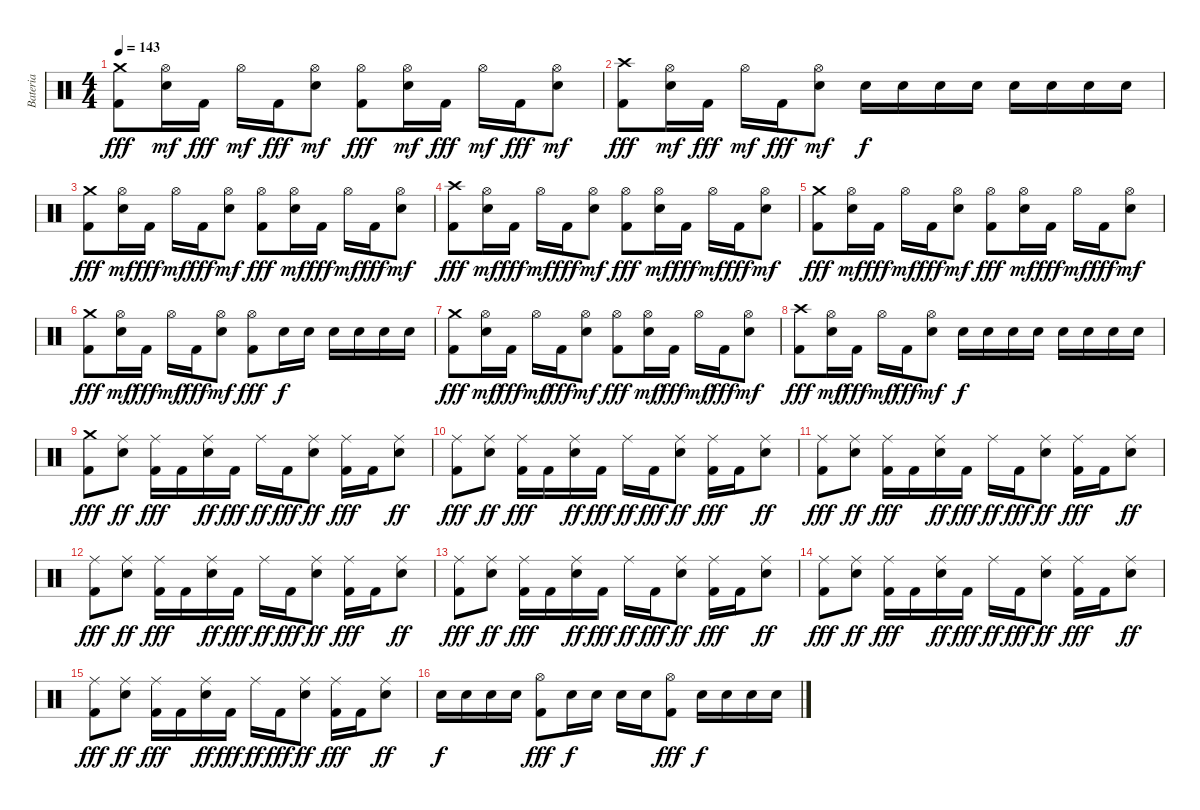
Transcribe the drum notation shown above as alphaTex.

\track ("Bateria" "Bateria") {instrument percussion}
\staff {score}
\articulation defaults
\ts (4 4)
\tempo 143
\clef neutral
\ks c
("Crash medium (hit)" "Kick (hit) 2").8{dy fff} ("Hi-Hat (open)" "Electric Snare (hit)").16{dy mf} "Kick (hit) 2".16{dy fff} "Hi-Hat (open)".16{dy mf} "Kick (hit) 2".16{dy fff} ("Hi-Hat (open)" "Electric Snare (hit)").8{dy mf} ("Hi-Hat (open)" "Kick (hit) 2").8{dy fff} ("Hi-Hat (open)" "Electric Snare (hit)").16{dy mf} "Kick (hit) 2".16{dy fff} "Hi-Hat (open)".16{dy mf} "Kick (hit) 2".16{dy fff} ("Hi-Hat (open)" "Electric Snare (hit)").8{dy mf} |
("Crash high (hit)" "Kick (hit) 2").8{dy fff} ("Hi-Hat (open)" "Electric Snare (hit)").16{dy mf} "Kick (hit) 2".16{dy fff} "Hi-Hat (open)".16{dy mf} "Kick (hit) 2".16{dy fff} ("Hi-Hat (open)" "Electric Snare (hit)").8{dy mf} "Electric Snare (hit)".16{dy f} "Electric Snare (hit)".16 "Electric Snare (hit)".16 "Electric Snare (hit)".16 "Electric Snare (hit)".16 "Electric Snare (hit)".16 "Electric Snare (hit)".16 "Electric Snare (hit)".16 |
("Crash medium (hit)" "Kick (hit) 2").8{dy fff} ("Hi-Hat (open)" "Electric Snare (hit)").16{dy mf} "Kick (hit) 2".16{dy fff} "Hi-Hat (open)".16{dy mf} "Kick (hit) 2".16{dy fff} ("Hi-Hat (open)" "Electric Snare (hit)").8{dy mf} ("Hi-Hat (open)" "Kick (hit) 2").8{dy fff} ("Hi-Hat (open)" "Electric Snare (hit)").16{dy mf} "Kick (hit) 2".16{dy fff} "Hi-Hat (open)".16{dy mf} "Kick (hit) 2".16{dy fff} ("Hi-Hat (open)" "Electric Snare (hit)").8{dy mf} |
("Crash high (hit)" "Kick (hit) 2").8{dy fff} ("Hi-Hat (open)" "Electric Snare (hit)").16{dy mf} "Kick (hit) 2".16{dy fff} "Hi-Hat (open)".16{dy mf} "Kick (hit) 2".16{dy fff} ("Hi-Hat (open)" "Electric Snare (hit)").8{dy mf} ("Hi-Hat (open)" "Kick (hit) 2").8{dy fff} ("Hi-Hat (open)" "Electric Snare (hit)").16{dy mf} "Kick (hit) 2".16{dy fff} "Hi-Hat (open)".16{dy mf} "Kick (hit) 2".16{dy fff} ("Hi-Hat (open)" "Electric Snare (hit)").8{dy mf} |
("Crash medium (hit)" "Kick (hit) 2").8{dy fff} ("Hi-Hat (open)" "Electric Snare (hit)").16{dy mf} "Kick (hit) 2".16{dy fff} "Hi-Hat (open)".16{dy mf} "Kick (hit) 2".16{dy fff} ("Hi-Hat (open)" "Electric Snare (hit)").8{dy mf} ("Hi-Hat (open)" "Kick (hit) 2").8{dy fff} ("Hi-Hat (open)" "Electric Snare (hit)").16{dy mf} "Kick (hit) 2".16{dy fff} "Hi-Hat (open)".16{dy mf} "Kick (hit) 2".16{dy fff} ("Hi-Hat (open)" "Electric Snare (hit)").8{dy mf} |
("Crash medium (hit)" "Kick (hit) 2").8{dy fff} ("Hi-Hat (open)" "Electric Snare (hit)").16{dy mf} "Kick (hit) 2".16{dy fff} "Hi-Hat (open)".16{dy mf} "Kick (hit) 2".16{dy fff} ("Hi-Hat (open)" "Electric Snare (hit)").8{dy mf} ("Hi-Hat (open)" "Kick (hit) 2").8{dy fff} "Electric Snare (hit)".16{dy f} "Electric Snare (hit)".16 "Electric Snare (hit)".16 "Electric Snare (hit)".16 "Electric Snare (hit)".16 "Electric Snare (hit)".16 |
("Crash medium (hit)" "Kick (hit) 2").8{dy fff} ("Hi-Hat (open)" "Electric Snare (hit)").16{dy mf} "Kick (hit) 2".16{dy fff} "Hi-Hat (open)".16{dy mf} "Kick (hit) 2".16{dy fff} ("Hi-Hat (open)" "Electric Snare (hit)").8{dy mf} ("Hi-Hat (open)" "Kick (hit) 2").8{dy fff} ("Hi-Hat (open)" "Electric Snare (hit)").16{dy mf} "Kick (hit) 2".16{dy fff} "Hi-Hat (open)".16{dy mf} "Kick (hit) 2".16{dy fff} ("Hi-Hat (open)" "Electric Snare (hit)").8{dy mf} |
("Crash high (hit)" "Kick (hit) 2").8{dy fff} ("Hi-Hat (open)" "Electric Snare (hit)").16{dy mf} "Kick (hit) 2".16{dy fff} "Hi-Hat (open)".16{dy mf} "Kick (hit) 2".16{dy fff} ("Hi-Hat (open)" "Electric Snare (hit)").8{dy mf} "Electric Snare (hit)".16{dy f} "Electric Snare (hit)".16 "Electric Snare (hit)".16 "Electric Snare (hit)".16 "Electric Snare (hit)".16 "Electric Snare (hit)".16 "Electric Snare (hit)".16 "Electric Snare (hit)".16 |
("Crash medium (hit)" "Kick (hit) 2").8{dy fff} ("Ride (middle)" "Electric Snare (hit)").8{dy ff} ("Ride (middle)" "Kick (hit) 2").16{dy fff} "Kick (hit) 2".16 ("Ride (middle)" "Electric Snare (hit)").16{dy ff} "Kick (hit) 2".16{dy fff} "Ride (middle)".16{dy ff} "Kick (hit) 2".16{dy fff} ("Ride (middle)" "Electric Snare (hit)").8{dy ff} ("Ride (middle)" "Kick (hit) 2").16{dy fff} "Kick (hit) 2".16 ("Ride (middle)" "Electric Snare (hit)").8{dy ff} |
("Ride (middle)" "Kick (hit) 2").8{dy fff} ("Ride (middle)" "Electric Snare (hit)").8{dy ff} ("Ride (middle)" "Kick (hit) 2").16{dy fff} "Kick (hit) 2".16 ("Ride (middle)" "Electric Snare (hit)").16{dy ff} "Kick (hit) 2".16{dy fff} "Ride (middle)".16{dy ff} "Kick (hit) 2".16{dy fff} ("Ride (middle)" "Electric Snare (hit)").8{dy ff} ("Ride (middle)" "Kick (hit) 2").16{dy fff} "Kick (hit) 2".16 ("Ride (middle)" "Electric Snare (hit)").8{dy ff} |
("Ride (middle)" "Kick (hit) 2").8{dy fff} ("Ride (middle)" "Electric Snare (hit)").8{dy ff} ("Ride (middle)" "Kick (hit) 2").16{dy fff} "Kick (hit) 2".16 ("Ride (middle)" "Electric Snare (hit)").16{dy ff} "Kick (hit) 2".16{dy fff} "Ride (middle)".16{dy ff} "Kick (hit) 2".16{dy fff} ("Ride (middle)" "Electric Snare (hit)").8{dy ff} ("Ride (middle)" "Kick (hit) 2").16{dy fff} "Kick (hit) 2".16 ("Ride (middle)" "Electric Snare (hit)").8{dy ff} |
("Ride (middle)" "Kick (hit) 2").8{dy fff} ("Ride (middle)" "Electric Snare (hit)").8{dy ff} ("Ride (middle)" "Kick (hit) 2").16{dy fff} "Kick (hit) 2".16 ("Ride (middle)" "Electric Snare (hit)").16{dy ff} "Kick (hit) 2".16{dy fff} "Ride (middle)".16{dy ff} "Kick (hit) 2".16{dy fff} ("Ride (middle)" "Electric Snare (hit)").8{dy ff} ("Ride (middle)" "Kick (hit) 2").16{dy fff} "Kick (hit) 2".16 ("Ride (middle)" "Electric Snare (hit)").8{dy ff} |
("Ride (middle)" "Kick (hit) 2").8{dy fff} ("Ride (middle)" "Electric Snare (hit)").8{dy ff} ("Ride (middle)" "Kick (hit) 2").16{dy fff} "Kick (hit) 2".16 ("Ride (middle)" "Electric Snare (hit)").16{dy ff} "Kick (hit) 2".16{dy fff} "Ride (middle)".16{dy ff} "Kick (hit) 2".16{dy fff} ("Ride (middle)" "Electric Snare (hit)").8{dy ff} ("Ride (middle)" "Kick (hit) 2").16{dy fff} "Kick (hit) 2".16 ("Ride (middle)" "Electric Snare (hit)").8{dy ff} |
("Ride (middle)" "Kick (hit) 2").8{dy fff} ("Ride (middle)" "Electric Snare (hit)").8{dy ff} ("Ride (middle)" "Kick (hit) 2").16{dy fff} "Kick (hit) 2".16 ("Ride (middle)" "Electric Snare (hit)").16{dy ff} "Kick (hit) 2".16{dy fff} "Ride (middle)".16{dy ff} "Kick (hit) 2".16{dy fff} ("Ride (middle)" "Electric Snare (hit)").8{dy ff} ("Ride (middle)" "Kick (hit) 2").16{dy fff} "Kick (hit) 2".16 ("Ride (middle)" "Electric Snare (hit)").8{dy ff} |
("Ride (middle)" "Kick (hit) 2").8{dy fff} ("Ride (middle)" "Electric Snare (hit)").8{dy ff} ("Ride (middle)" "Kick (hit) 2").16{dy fff} "Kick (hit) 2".16 ("Ride (middle)" "Electric Snare (hit)").16{dy ff} "Kick (hit) 2".16{dy fff} "Ride (middle)".16{dy ff} "Kick (hit) 2".16{dy fff} ("Ride (middle)" "Electric Snare (hit)").8{dy ff} ("Ride (middle)" "Kick (hit) 2").16{dy fff} "Kick (hit) 2".16 ("Ride (middle)" "Electric Snare (hit)").8{dy ff} |
"Electric Snare (hit)".16{dy f} "Electric Snare (hit)".16 "Electric Snare (hit)".16 "Electric Snare (hit)".16 ("Hi-Hat (open)" "Kick (hit) 2").8{dy fff} "Electric Snare (hit)".16{dy f} "Electric Snare (hit)".16 "Electric Snare (hit)".16 "Electric Snare (hit)".16 ("Hi-Hat (open)" "Kick (hit) 2").8{dy fff} "Electric Snare (hit)".16{dy f} "Electric Snare (hit)".16 "Electric Snare (hit)".16 "Electric Snare (hit)".16
